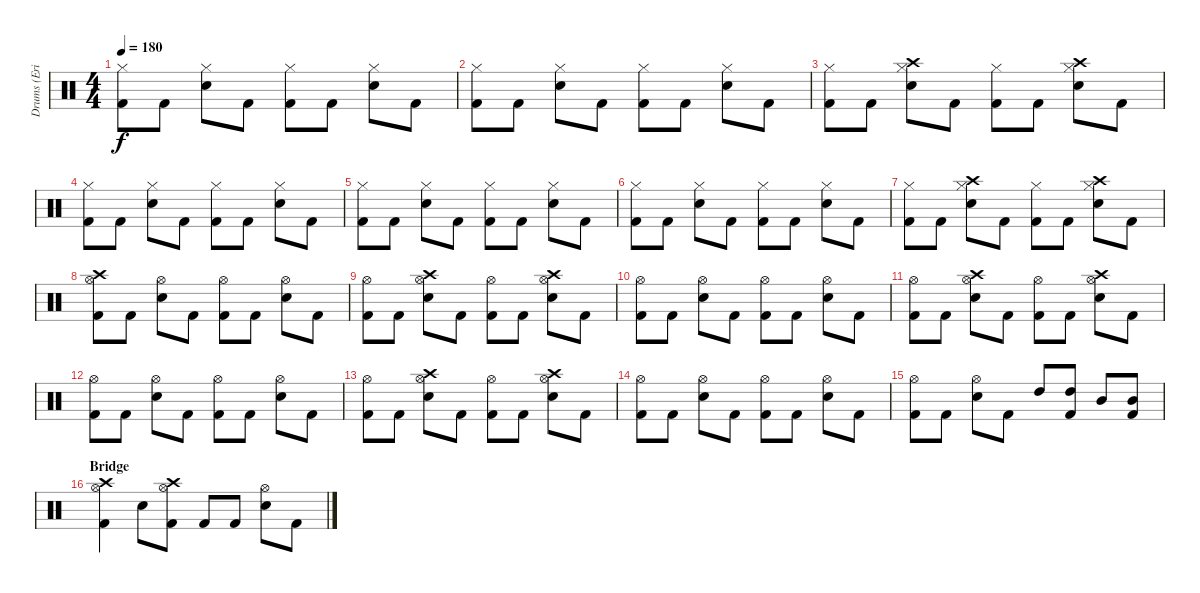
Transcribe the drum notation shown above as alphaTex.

\track ("Drums (Eric Young)" "Drums (Eri") {instrument percussion}
\staff {score}
\articulation defaults
\ts (4 4)
\tempo 180
\clef neutral
\ks c
("Hi-Hat (closed)" "Kick (hit) 2").8{dy f} "Kick (hit) 2".8 ("Hi-Hat (closed)" "Snare (hit) 2").8 "Kick (hit) 2".8 ("Hi-Hat (closed)" "Kick (hit) 2").8 "Kick (hit) 2".8 ("Hi-Hat (closed)" "Snare (hit) 2").8 "Kick (hit) 2".8 |
("Hi-Hat (closed)" "Kick (hit) 2").8 "Kick (hit) 2".8 ("Hi-Hat (closed)" "Snare (hit) 2").8 "Kick (hit) 2".8 ("Hi-Hat (closed)" "Kick (hit) 2").8 "Kick (hit) 2".8 ("Hi-Hat (closed)" "Snare (hit) 2").8 "Kick (hit) 2".8 |
("Hi-Hat (closed)" "Kick (hit) 2").8 "Kick (hit) 2".8 ("Crash high (hit)" "Hi-Hat (closed)" "Snare (hit) 2").8 "Kick (hit) 2".8 ("Hi-Hat (closed)" "Kick (hit) 2").8 "Kick (hit) 2".8 ("Crash high (hit)" "Hi-Hat (closed)" "Snare (hit) 2").8 "Kick (hit) 2".8 |
("Hi-Hat (closed)" "Kick (hit) 2").8 "Kick (hit) 2".8 ("Hi-Hat (closed)" "Snare (hit) 2").8 "Kick (hit) 2".8 ("Hi-Hat (closed)" "Kick (hit) 2").8 "Kick (hit) 2".8 ("Hi-Hat (closed)" "Snare (hit) 2").8 "Kick (hit) 2".8 |
("Hi-Hat (closed)" "Kick (hit) 2").8 "Kick (hit) 2".8 ("Hi-Hat (closed)" "Snare (hit) 2").8 "Kick (hit) 2".8 ("Hi-Hat (closed)" "Kick (hit) 2").8 "Kick (hit) 2".8 ("Hi-Hat (closed)" "Snare (hit) 2").8 "Kick (hit) 2".8 |
("Hi-Hat (closed)" "Kick (hit) 2").8 "Kick (hit) 2".8 ("Hi-Hat (closed)" "Snare (hit) 2").8 "Kick (hit) 2".8 ("Hi-Hat (closed)" "Kick (hit) 2").8 "Kick (hit) 2".8 ("Hi-Hat (closed)" "Snare (hit) 2").8 "Kick (hit) 2".8 |
("Hi-Hat (closed)" "Kick (hit) 2").8 "Kick (hit) 2".8 ("Crash high (hit)" "Hi-Hat (closed)" "Snare (hit) 2").8 "Kick (hit) 2".8 ("Hi-Hat (closed)" "Kick (hit) 2").8 "Kick (hit) 2".8 ("Crash high (hit)" "Hi-Hat (closed)" "Snare (hit) 2").8 "Kick (hit) 2".8 |
("Crash high (hit)" "Hi-Hat (open)" "Kick (hit) 2").8 "Kick (hit) 2".8 ("Hi-Hat (open)" "Snare (hit) 2").8 "Kick (hit) 2".8 ("Hi-Hat (open)" "Kick (hit) 2").8 "Kick (hit) 2".8 ("Hi-Hat (open)" "Snare (hit) 2").8 "Kick (hit) 2".8 |
("Hi-Hat (open)" "Kick (hit) 2").8 "Kick (hit) 2".8 ("Crash high (hit)" "Hi-Hat (open)" "Snare (hit) 2").8 "Kick (hit) 2".8 ("Hi-Hat (open)" "Kick (hit) 2").8 "Kick (hit) 2".8 ("Crash high (hit)" "Hi-Hat (open)" "Snare (hit) 2").8 "Kick (hit) 2".8 |
("Hi-Hat (open)" "Kick (hit) 2").8 "Kick (hit) 2".8 ("Hi-Hat (open)" "Snare (hit) 2").8 "Kick (hit) 2".8 ("Hi-Hat (open)" "Kick (hit) 2").8 "Kick (hit) 2".8 ("Hi-Hat (open)" "Snare (hit) 2").8 "Kick (hit) 2".8 |
("Hi-Hat (open)" "Kick (hit) 2").8 "Kick (hit) 2".8 ("Crash high (hit)" "Hi-Hat (open)" "Snare (hit) 2").8 "Kick (hit) 2".8 ("Hi-Hat (open)" "Kick (hit) 2").8 "Kick (hit) 2".8 ("Crash high (hit)" "Hi-Hat (open)" "Snare (hit) 2").8 "Kick (hit) 2".8 |
("Hi-Hat (open)" "Kick (hit) 2").8 "Kick (hit) 2".8 ("Hi-Hat (open)" "Snare (hit) 2").8 "Kick (hit) 2".8 ("Hi-Hat (open)" "Kick (hit) 2").8 "Kick (hit) 2".8 ("Hi-Hat (open)" "Snare (hit) 2").8 "Kick (hit) 2".8 |
("Hi-Hat (open)" "Kick (hit) 2").8 "Kick (hit) 2".8 ("Crash high (hit)" "Hi-Hat (open)" "Snare (hit) 2").8 "Kick (hit) 2".8 ("Hi-Hat (open)" "Kick (hit) 2").8 "Kick (hit) 2".8 ("Crash high (hit)" "Hi-Hat (open)" "Snare (hit) 2").8 "Kick (hit) 2".8 |
("Hi-Hat (open)" "Kick (hit) 2").8 "Kick (hit) 2".8 ("Hi-Hat (open)" "Snare (hit) 2").8 "Kick (hit) 2".8 ("Hi-Hat (open)" "Kick (hit) 2").8 "Kick (hit) 2".8 ("Hi-Hat (open)" "Snare (hit) 2").8 "Kick (hit) 2".8 |
("Hi-Hat (open)" "Kick (hit) 2").8 "Kick (hit) 2".8 ("Hi-Hat (open)" "Snare (hit) 2").8 "Kick (hit) 2".8 "High Tom (hit)".8 ("High Tom (hit)" "Kick (hit) 2").8 "Mid Tom (hit)".8 ("Mid Tom (hit)" "Kick (hit) 2").8 |
\section ("" "Bridge")
("Crash high (hit)" "Hi-Hat (open)" "Kick (hit) 2").4 "Snare (hit) 2".8 ("Crash high (hit)" "Hi-Hat (open)" "Kick (hit) 2").8 "Kick (hit) 2".8 "Kick (hit) 2".8 ("Hi-Hat (open)" "Snare (hit) 2").8 "Kick (hit) 2".8
